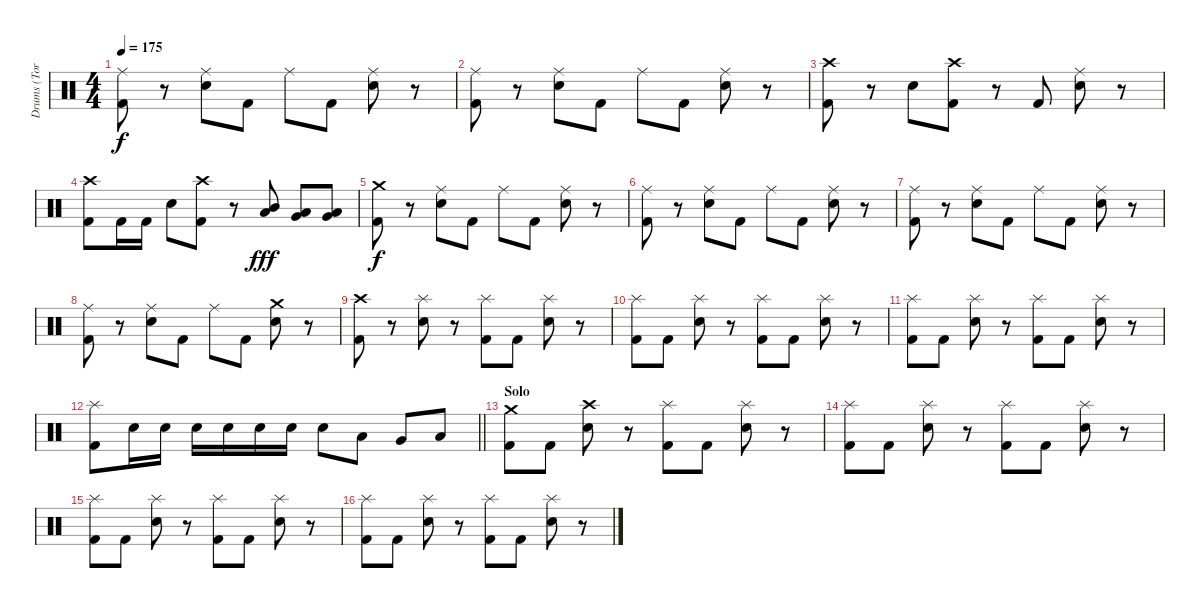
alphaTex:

\track ("Drums (Tora)" "Drums (Tor") {instrument percussion}
\staff {score}
\articulation defaults
\ts (4 4)
\tempo 175
\clef neutral
\ks c
("Ride (middle)" "Kick (hit) 2").8{dy f} r.8 ("Ride (middle)" "Electric Snare (hit)").8 "Kick (hit) 2".8 "Ride (middle)".8 "Kick (hit) 2".8 ("Ride (middle)" "Electric Snare (hit)").8 r.8 |
("Ride (middle)" "Kick (hit) 2").8 r.8 ("Ride (middle)" "Electric Snare (hit)").8 "Kick (hit) 2".8 "Ride (middle)".8 "Kick (hit) 2".8 ("Ride (middle)" "Electric Snare (hit)").8 r.8 |
("Crash high (hit)" "Kick (hit) 2").8 r.8 "Electric Snare (hit)".8 ("Crash high (hit)" "Kick (hit) 2").8 r.8 "Kick (hit) 2".8 ("Ride (middle)" "Electric Snare (hit)").8 r.8 |
("Crash high (hit)" "Kick (hit) 2").8 "Kick (hit) 2".16 "Kick (hit) 2".16 "Electric Snare (hit)".8 ("Crash high (hit)" "Kick (hit) 2").8 r.8 ("Mid Tom (hit)" "Low Tom (hit)").8{dy fff} ("Low Tom (hit)" "Very Low Tom (hit)").8 ("Very Low Tom (hit)" "Low Floor Tom (hit)").8 |
("Crash medium (hit)" "Kick (hit) 2").8{dy f} r.8 ("Ride (middle)" "Electric Snare (hit)").8 "Kick (hit) 2".8 "Ride (middle)".8 "Kick (hit) 2".8 ("Ride (middle)" "Electric Snare (hit)").8 r.8 |
("Ride (middle)" "Kick (hit) 2").8 r.8 ("Ride (middle)" "Electric Snare (hit)").8 "Kick (hit) 2".8 "Ride (middle)".8 "Kick (hit) 2".8 ("Ride (middle)" "Electric Snare (hit)").8 r.8 |
("Ride (middle)" "Kick (hit) 2").8 r.8 ("Ride (middle)" "Electric Snare (hit)").8 "Kick (hit) 2".8 "Ride (middle)".8 "Kick (hit) 2".8 ("Ride (middle)" "Electric Snare (hit)").8 r.8 |
("Ride (middle)" "Kick (hit) 2").8 r.8 ("Ride (middle)" "Electric Snare (hit)").8 "Kick (hit) 2".8 "Ride (middle)".8 "Kick (hit) 2".8 ("Crash medium (hit)" "Electric Snare (hit)").8 r.8 |
("Crash high (hit)" "Kick (hit) 2").8 r.8 ("Splash (hit)" "Electric Snare (hit)").8 r.8 ("Splash (hit)" "Kick (hit) 2").8 "Kick (hit) 2".8 ("Splash (hit)" "Electric Snare (hit)").8 r.8 |
("Splash (hit)" "Kick (hit) 2").8 "Kick (hit) 2".8 ("Splash (hit)" "Electric Snare (hit)").8 r.8 ("Splash (hit)" "Kick (hit) 2").8 "Kick (hit) 2".8 ("Splash (hit)" "Electric Snare (hit)").8 r.8 |
("Splash (hit)" "Kick (hit) 2").8 "Kick (hit) 2".8 ("Splash (hit)" "Electric Snare (hit)").8 r.8 ("Splash (hit)" "Kick (hit) 2").8 "Kick (hit) 2".8 ("Splash (hit)" "Electric Snare (hit)").8 r.8 |
\barLineRight lightlight
("Splash (hit)" "Kick (hit) 2").8 "Electric Snare (hit)".16 "Electric Snare (hit)".16 "Electric Snare (hit)".16 "Electric Snare (hit)".16 "Electric Snare (hit)".16 "Electric Snare (hit)".16 "Electric Snare (hit)".8 "Low Tom (hit)".8 "Very Low Tom (hit)".8 "Low Floor Tom (hit)".8 |
\section ("" "Solo")
("Crash medium (hit)" "Kick (hit) 2").8 "Kick (hit) 2".8 ("Crash high (hit)" "Electric Snare (hit)").8 r.8 ("Splash (hit)" "Kick (hit) 2").8 "Kick (hit) 2".8 ("Splash (hit)" "Electric Snare (hit)").8 r.8 |
("Splash (hit)" "Kick (hit) 2").8 "Kick (hit) 2".8 ("Splash (hit)" "Electric Snare (hit)").8 r.8 ("Splash (hit)" "Kick (hit) 2").8 "Kick (hit) 2".8 ("Splash (hit)" "Electric Snare (hit)").8 r.8 |
("Splash (hit)" "Kick (hit) 2").8 "Kick (hit) 2".8 ("Splash (hit)" "Electric Snare (hit)").8 r.8 ("Splash (hit)" "Kick (hit) 2").8 "Kick (hit) 2".8 ("Splash (hit)" "Electric Snare (hit)").8 r.8 |
("Splash (hit)" "Kick (hit) 2").8 "Kick (hit) 2".8 ("Splash (hit)" "Electric Snare (hit)").8 r.8 ("Splash (hit)" "Kick (hit) 2").8 "Kick (hit) 2".8 ("Splash (hit)" "Electric Snare (hit)").8 r.8
